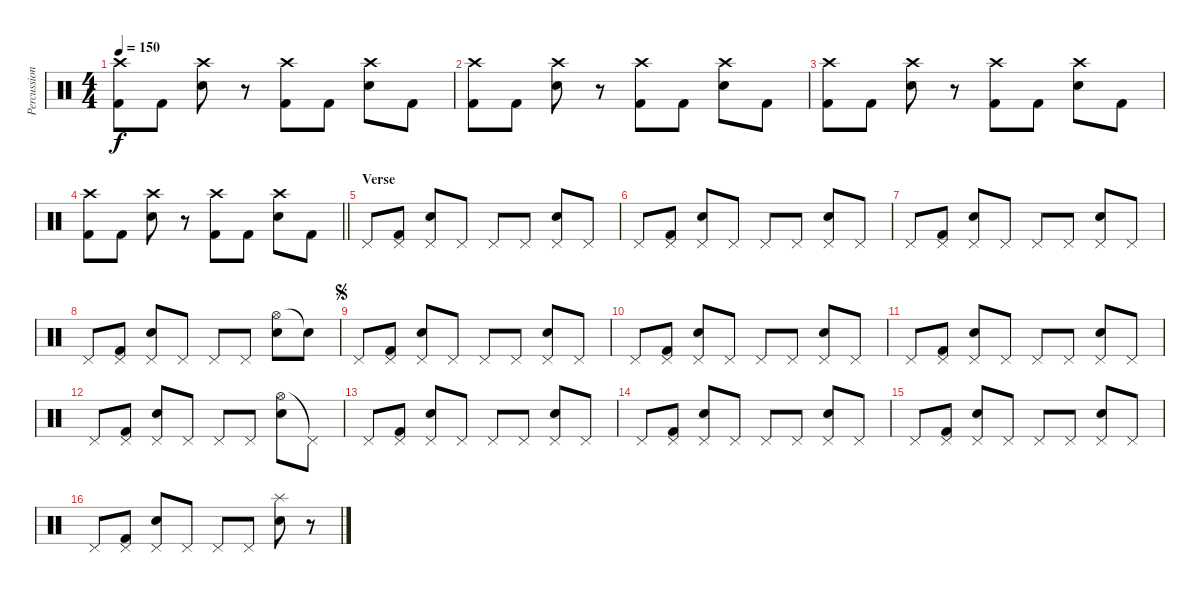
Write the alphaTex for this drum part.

\track ("Percussion" "Percussion") {instrument percussion}
\staff {score}
\articulation defaults
\ts (4 4)
\tempo 150
\clef neutral
\ks c
("Crash high (hit)" "Kick (hit) 2").8{dy f} "Kick (hit) 2".8 ("Crash high (hit)" "Electric Snare (hit)").8 r.8 ("Crash high (hit)" "Kick (hit) 2").8 "Kick (hit) 2".8 ("Crash high (hit)" "Electric Snare (hit)").8 "Kick (hit) 2".8 |
("Crash high (hit)" "Kick (hit) 2").8 "Kick (hit) 2".8 ("Crash high (hit)" "Electric Snare (hit)").8 r.8 ("Crash high (hit)" "Kick (hit) 2").8 "Kick (hit) 2".8 ("Crash high (hit)" "Electric Snare (hit)").8 "Kick (hit) 2".8 |
("Crash high (hit)" "Kick (hit) 2").8 "Kick (hit) 2".8 ("Crash high (hit)" "Electric Snare (hit)").8 r.8 ("Crash high (hit)" "Kick (hit) 2").8 "Kick (hit) 2".8 ("Crash high (hit)" "Electric Snare (hit)").8 "Kick (hit) 2".8 |
\barLineRight lightlight
("Crash high (hit)" "Kick (hit) 2").8 "Kick (hit) 2".8 ("Crash high (hit)" "Electric Snare (hit)").8 r.8 ("Crash high (hit)" "Kick (hit) 2").8 "Kick (hit) 2".8 ("Crash high (hit)" "Electric Snare (hit)").8 "Kick (hit) 2".8 |
\section ("" "Verse")
"Pedal Hi-Hat (hit)".8 ("Pedal Hi-Hat (hit)" "Kick (hit) 2").8 ("Pedal Hi-Hat (hit)" "Electric Snare (hit)").8 "Pedal Hi-Hat (hit)".8 "Pedal Hi-Hat (hit)".8 "Pedal Hi-Hat (hit)".8 ("Pedal Hi-Hat (hit)" "Electric Snare (hit)").8 "Pedal Hi-Hat (hit)".8 |
"Pedal Hi-Hat (hit)".8 ("Pedal Hi-Hat (hit)" "Kick (hit) 2").8 ("Pedal Hi-Hat (hit)" "Electric Snare (hit)").8 "Pedal Hi-Hat (hit)".8 "Pedal Hi-Hat (hit)".8 "Pedal Hi-Hat (hit)".8 ("Pedal Hi-Hat (hit)" "Electric Snare (hit)").8 "Pedal Hi-Hat (hit)".8 |
"Pedal Hi-Hat (hit)".8 ("Pedal Hi-Hat (hit)" "Kick (hit) 2").8 ("Pedal Hi-Hat (hit)" "Electric Snare (hit)").8 "Pedal Hi-Hat (hit)".8 "Pedal Hi-Hat (hit)".8 "Pedal Hi-Hat (hit)".8 ("Pedal Hi-Hat (hit)" "Electric Snare (hit)").8 "Pedal Hi-Hat (hit)".8 |
"Pedal Hi-Hat (hit)".8 ("Pedal Hi-Hat (hit)" "Kick (hit) 2").8 ("Pedal Hi-Hat (hit)" "Electric Snare (hit)").8 "Pedal Hi-Hat (hit)".8 "Pedal Hi-Hat (hit)".8 "Pedal Hi-Hat (hit)".8 ("Hi-Hat (open)" "Electric Snare (hit)").8 "Snare (hit)"{t}.8 |
\jump segno "Pedal Hi-Hat (hit)".8
("Pedal Hi-Hat (hit)" "Kick (hit) 2").8 ("Pedal Hi-Hat (hit)" "Electric Snare (hit)").8 "Pedal Hi-Hat (hit)".8 "Pedal Hi-Hat (hit)".8 "Pedal Hi-Hat (hit)".8 ("Pedal Hi-Hat (hit)" "Electric Snare (hit)").8 "Pedal Hi-Hat (hit)".8 |
"Pedal Hi-Hat (hit)".8 ("Pedal Hi-Hat (hit)" "Kick (hit) 2").8 ("Pedal Hi-Hat (hit)" "Electric Snare (hit)").8 "Pedal Hi-Hat (hit)".8 "Pedal Hi-Hat (hit)".8 "Pedal Hi-Hat (hit)".8 ("Pedal Hi-Hat (hit)" "Electric Snare (hit)").8 "Pedal Hi-Hat (hit)".8 |
"Pedal Hi-Hat (hit)".8 ("Pedal Hi-Hat (hit)" "Kick (hit) 2").8 ("Pedal Hi-Hat (hit)" "Electric Snare (hit)").8 "Pedal Hi-Hat (hit)".8 "Pedal Hi-Hat (hit)".8 "Pedal Hi-Hat (hit)".8 ("Pedal Hi-Hat (hit)" "Electric Snare (hit)").8 "Pedal Hi-Hat (hit)".8 |
"Pedal Hi-Hat (hit)".8 ("Pedal Hi-Hat (hit)" "Kick (hit) 2").8 ("Pedal Hi-Hat (hit)" "Electric Snare (hit)").8 "Pedal Hi-Hat (hit)".8 "Pedal Hi-Hat (hit)".8 "Pedal Hi-Hat (hit)".8 ("Hi-Hat (open)" "Electric Snare (hit)").8 "Pedal Hi-Hat (hit)"{t}.8 |
"Pedal Hi-Hat (hit)".8 ("Pedal Hi-Hat (hit)" "Kick (hit) 2").8 ("Pedal Hi-Hat (hit)" "Electric Snare (hit)").8 "Pedal Hi-Hat (hit)".8 "Pedal Hi-Hat (hit)".8 "Pedal Hi-Hat (hit)".8 ("Pedal Hi-Hat (hit)" "Electric Snare (hit)").8 "Pedal Hi-Hat (hit)".8 |
"Pedal Hi-Hat (hit)".8 ("Pedal Hi-Hat (hit)" "Kick (hit) 2").8 ("Pedal Hi-Hat (hit)" "Electric Snare (hit)").8 "Pedal Hi-Hat (hit)".8 "Pedal Hi-Hat (hit)".8 "Pedal Hi-Hat (hit)".8 ("Pedal Hi-Hat (hit)" "Electric Snare (hit)").8 "Pedal Hi-Hat (hit)".8 |
"Pedal Hi-Hat (hit)".8 ("Pedal Hi-Hat (hit)" "Kick (hit) 2").8 ("Pedal Hi-Hat (hit)" "Electric Snare (hit)").8 "Pedal Hi-Hat (hit)".8 "Pedal Hi-Hat (hit)".8 "Pedal Hi-Hat (hit)".8 ("Pedal Hi-Hat (hit)" "Electric Snare (hit)").8 "Pedal Hi-Hat (hit)".8 |
"Pedal Hi-Hat (hit)".8 ("Pedal Hi-Hat (hit)" "Kick (hit) 2").8 ("Pedal Hi-Hat (hit)" "Electric Snare (hit)").8 "Pedal Hi-Hat (hit)".8 "Pedal Hi-Hat (hit)".8 "Pedal Hi-Hat (hit)".8 ("Splash (hit)" "Electric Snare (hit)").8 r.8
